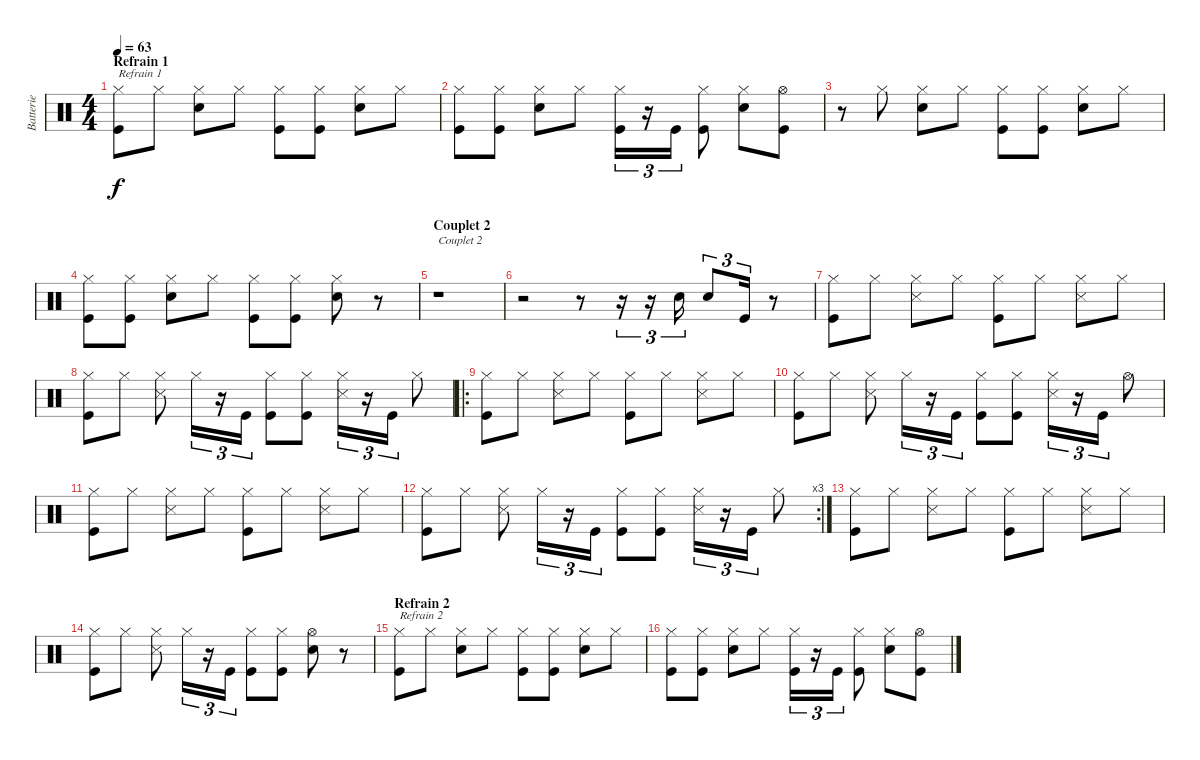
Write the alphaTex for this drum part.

\track ("Batterie" "Batterie") {instrument percussion}
\staff {score}
\articulation defaults
\ts (4 4)
\section ("" "Refrain 1")
\tempo 63
\clef neutral
\ks c
("Hi-Hat (closed)" "Kick (hit)").8{txt "Refrain 1" dy f} "Hi-Hat (closed)".8 ("Electric Snare (hit)" "Hi-Hat (closed)").8 "Hi-Hat (closed)".8 ("Hi-Hat (closed)" "Kick (hit)").8 ("Hi-Hat (closed)" "Kick (hit)").8 ("Electric Snare (hit)" "Hi-Hat (closed)").8 "Hi-Hat (closed)".8 |
("Hi-Hat (closed)" "Kick (hit)").8 ("Hi-Hat (closed)" "Kick (hit)").8 ("Electric Snare (hit)" "Hi-Hat (closed)").8 "Hi-Hat (closed)".8 ("Hi-Hat (closed)" "Kick (hit)").16{tu (3 2)} r.16{tu (3 2)} "Kick (hit)".16{tu (3 2)} ("Hi-Hat (closed)" "Kick (hit)").8 ("Electric Snare (hit)" "Hi-Hat (closed)").8 ("Hi-Hat (open)" "Kick (hit)").8 |
r.8 "Hi-Hat (closed)".8 ("Electric Snare (hit)" "Hi-Hat (closed)").8 "Hi-Hat (closed)".8 ("Hi-Hat (closed)" "Kick (hit)").8 ("Hi-Hat (closed)" "Kick (hit)").8 ("Electric Snare (hit)" "Hi-Hat (closed)").8 "Hi-Hat (closed)".8 |
("Hi-Hat (closed)" "Kick (hit)").8 ("Hi-Hat (closed)" "Kick (hit)").8 ("Electric Snare (hit)" "Hi-Hat (closed)").8 "Hi-Hat (closed)".8 ("Hi-Hat (closed)" "Kick (hit)").8 ("Hi-Hat (closed)" "Kick (hit)").8 ("Electric Snare (hit)" "Hi-Hat (closed)").8 r.8 |
\section ("" "Couplet 2")
r.1{txt "Couplet 2"} |
r.2 r.8 r.16{tu (3 2)} r.16{tu (3 2)} "Electric Snare (hit)".16{tu (3 2)} "Electric Snare (hit)".8{tu (3 2)} "Kick (hit)".16{tu (3 2)} r.8 |
("Hi-Hat (closed)" "Kick (hit)").8 "Hi-Hat (closed)".8 ("Snare (side stick) 3" "Hi-Hat (closed)").8 "Hi-Hat (closed)".8 ("Hi-Hat (closed)" "Kick (hit)").8 "Hi-Hat (closed)".8 ("Snare (side stick) 3" "Hi-Hat (closed)").8 "Hi-Hat (closed)".8 |
("Hi-Hat (closed)" "Kick (hit)").8 "Hi-Hat (closed)".8 ("Snare (side stick) 3" "Hi-Hat (closed)").8 "Hi-Hat (closed)".16{tu (3 2)} r.16{tu (3 2)} "Kick (hit)".16{tu (3 2)} ("Hi-Hat (closed)" "Kick (hit)").8 ("Hi-Hat (closed)" "Kick (hit)").8 ("Snare (side stick) 3" "Hi-Hat (closed)").16{tu (3 2)} r.16{tu (3 2)} "Kick (hit)".16{tu (3 2)} "Hi-Hat (closed)".8 |
\ro
("Hi-Hat (closed)" "Kick (hit)").8 "Hi-Hat (closed)".8 ("Snare (side stick) 3" "Hi-Hat (closed)").8 "Hi-Hat (closed)".8 ("Hi-Hat (closed)" "Kick (hit)").8 "Hi-Hat (closed)".8 ("Snare (side stick) 3" "Hi-Hat (closed)").8 "Hi-Hat (closed)".8 |
("Hi-Hat (closed)" "Kick (hit)").8 "Hi-Hat (closed)".8 ("Snare (side stick) 3" "Hi-Hat (closed)").8 "Hi-Hat (closed)".16{tu (3 2)} r.16{tu (3 2)} "Kick (hit)".16{tu (3 2)} ("Hi-Hat (closed)" "Kick (hit)").8 ("Hi-Hat (closed)" "Kick (hit)").8 ("Snare (side stick) 3" "Hi-Hat (closed)").16{tu (3 2)} r.16{tu (3 2)} "Kick (hit)".16{tu (3 2)} "Hi-Hat (open)".8 |
("Hi-Hat (closed)" "Kick (hit)").8 "Hi-Hat (closed)".8 ("Snare (side stick) 3" "Hi-Hat (closed)").8 "Hi-Hat (closed)".8 ("Hi-Hat (closed)" "Kick (hit)").8 "Hi-Hat (closed)".8 ("Snare (side stick) 3" "Hi-Hat (closed)").8 "Hi-Hat (closed)".8 |
\rc 3
("Hi-Hat (closed)" "Kick (hit)").8 "Hi-Hat (closed)".8 ("Snare (side stick) 3" "Hi-Hat (closed)").8 "Hi-Hat (closed)".16{tu (3 2)} r.16{tu (3 2)} "Kick (hit)".16{tu (3 2)} ("Hi-Hat (closed)" "Kick (hit)").8 ("Hi-Hat (closed)" "Kick (hit)").8 ("Snare (side stick) 3" "Hi-Hat (closed)").16{tu (3 2)} r.16{tu (3 2)} "Kick (hit)".16{tu (3 2)} "Hi-Hat (closed)".8 |
("Hi-Hat (closed)" "Kick (hit)").8 "Hi-Hat (closed)".8 ("Snare (side stick) 3" "Hi-Hat (closed)").8 "Hi-Hat (closed)".8 ("Hi-Hat (closed)" "Kick (hit)").8 "Hi-Hat (closed)".8 ("Snare (side stick) 3" "Hi-Hat (closed)").8 "Hi-Hat (closed)".8 |
("Hi-Hat (closed)" "Kick (hit)").8 "Hi-Hat (closed)".8 ("Snare (side stick) 3" "Hi-Hat (closed)").8 "Hi-Hat (closed)".16{tu (3 2)} r.16{tu (3 2)} "Kick (hit)".16{tu (3 2)} ("Hi-Hat (closed)" "Kick (hit)").8 ("Hi-Hat (closed)" "Kick (hit)").8 ("Electric Snare (hit)" "Hi-Hat (open)").8 r.8 |
\section ("" "Refrain 2")
("Hi-Hat (closed)" "Kick (hit)").8{txt "Refrain 2"} "Hi-Hat (closed)".8 ("Electric Snare (hit)" "Hi-Hat (closed)").8 "Hi-Hat (closed)".8 ("Hi-Hat (closed)" "Kick (hit)").8 ("Hi-Hat (closed)" "Kick (hit)").8 ("Electric Snare (hit)" "Hi-Hat (closed)").8 "Hi-Hat (closed)".8 |
("Hi-Hat (closed)" "Kick (hit)").8 ("Hi-Hat (closed)" "Kick (hit)").8 ("Electric Snare (hit)" "Hi-Hat (closed)").8 "Hi-Hat (closed)".8 ("Hi-Hat (closed)" "Kick (hit)").16{tu (3 2)} r.16{tu (3 2)} "Kick (hit)".16{tu (3 2)} ("Hi-Hat (closed)" "Kick (hit)").8 ("Electric Snare (hit)" "Hi-Hat (closed)").8 ("Hi-Hat (open)" "Kick (hit)").8
